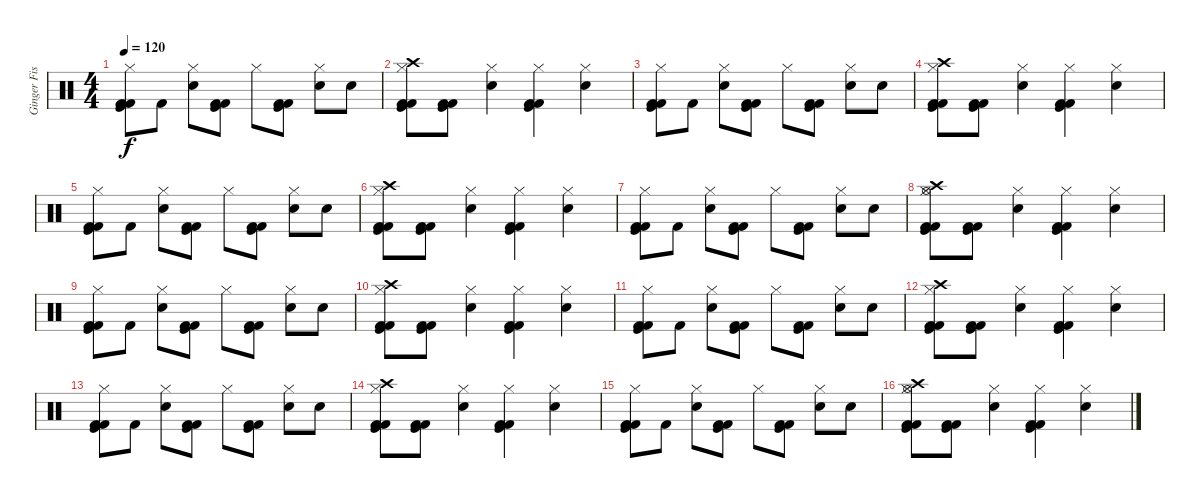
\track ("Ginger Fish" "Ginger Fis") {instrument percussion}
\staff {score}
\articulation defaults
\ts (4 4)
\tempo 120
\clef neutral
\ks c
("Hi-Hat (closed)" "Kick (hit) 2" "Kick (hit)" "Kick (hit) 2").8{dy f} "Kick (hit) 2".8 ("Hi-Hat (closed)" "Electric Snare (hit)").8 ("Kick (hit) 2" "Kick (hit)" "Kick (hit) 2").8 "Hi-Hat (closed)".8 ("Kick (hit) 2" "Kick (hit)" "Kick (hit) 2").8 ("Hi-Hat (closed)" "Electric Snare (hit)").8 "Electric Snare (hit)".8 |
("Crash high (hit)" "Hi-Hat (closed)" "Kick (hit) 2" "Kick (hit)" "Kick (hit) 2").8 ("Kick (hit) 2" "Kick (hit)" "Kick (hit) 2").8 ("Hi-Hat (closed)" "Electric Snare (hit)").4 ("Hi-Hat (closed)" "Kick (hit) 2" "Kick (hit)" "Kick (hit) 2").4 ("Hi-Hat (closed)" "Electric Snare (hit)").4 |
("Hi-Hat (closed)" "Kick (hit) 2" "Kick (hit)" "Kick (hit) 2").8 "Kick (hit) 2".8 ("Hi-Hat (closed)" "Electric Snare (hit)").8 ("Kick (hit) 2" "Kick (hit)" "Kick (hit) 2").8 "Hi-Hat (closed)".8 ("Kick (hit) 2" "Kick (hit)" "Kick (hit) 2").8 ("Hi-Hat (closed)" "Electric Snare (hit)").8 "Electric Snare (hit)".8 |
("Crash high (hit)" "Hi-Hat (closed)" "Kick (hit) 2" "Kick (hit)" "Kick (hit) 2").8 ("Kick (hit) 2" "Kick (hit)" "Kick (hit) 2").8 ("Hi-Hat (closed)" "Electric Snare (hit)").4 ("Hi-Hat (closed)" "Kick (hit) 2" "Kick (hit)" "Kick (hit) 2").4 ("Hi-Hat (closed)" "Electric Snare (hit)").4 |
("Hi-Hat (closed)" "Kick (hit) 2" "Kick (hit)" "Kick (hit) 2").8 "Kick (hit) 2".8 ("Hi-Hat (closed)" "Electric Snare (hit)").8 ("Kick (hit) 2" "Kick (hit)" "Kick (hit) 2").8 "Hi-Hat (closed)".8 ("Kick (hit) 2" "Kick (hit)" "Kick (hit) 2").8 ("Hi-Hat (closed)" "Electric Snare (hit)").8 "Electric Snare (hit)".8 |
("Crash high (hit)" "Hi-Hat (closed)" "Kick (hit) 2" "Kick (hit)" "Kick (hit) 2").8 ("Kick (hit) 2" "Kick (hit)" "Kick (hit) 2").8 ("Hi-Hat (closed)" "Electric Snare (hit)").4 ("Hi-Hat (closed)" "Kick (hit) 2" "Kick (hit)" "Kick (hit) 2").4 ("Hi-Hat (closed)" "Electric Snare (hit)").4 |
("Hi-Hat (closed)" "Kick (hit) 2" "Kick (hit)" "Kick (hit) 2").8 "Kick (hit) 2".8 ("Hi-Hat (closed)" "Electric Snare (hit)").8 ("Kick (hit) 2" "Kick (hit)" "Kick (hit) 2").8 "Hi-Hat (closed)".8 ("Kick (hit) 2" "Kick (hit)" "Kick (hit) 2").8 ("Hi-Hat (closed)" "Electric Snare (hit)").8 "Electric Snare (hit)".8 |
("Crash high (hit)" "Hi-Hat (closed)" "Hi-Hat (open)" "Kick (hit) 2" "Kick (hit)" "Kick (hit) 2").8 ("Kick (hit) 2" "Kick (hit)" "Kick (hit) 2").8 ("Hi-Hat (closed)" "Electric Snare (hit)").4 ("Hi-Hat (closed)" "Kick (hit) 2" "Kick (hit)" "Kick (hit) 2").4 ("Hi-Hat (closed)" "Electric Snare (hit)").4 |
("Hi-Hat (closed)" "Kick (hit) 2" "Kick (hit)" "Kick (hit) 2").8 "Kick (hit) 2".8 ("Hi-Hat (closed)" "Electric Snare (hit)").8 ("Kick (hit) 2" "Kick (hit)" "Kick (hit) 2").8 "Hi-Hat (closed)".8 ("Kick (hit) 2" "Kick (hit)" "Kick (hit) 2").8 ("Hi-Hat (closed)" "Electric Snare (hit)").8 "Electric Snare (hit)".8 |
("Crash high (hit)" "Hi-Hat (closed)" "Kick (hit) 2" "Kick (hit)" "Kick (hit) 2").8 ("Kick (hit) 2" "Kick (hit)" "Kick (hit) 2").8 ("Hi-Hat (closed)" "Electric Snare (hit)").4 ("Hi-Hat (closed)" "Kick (hit) 2" "Kick (hit)" "Kick (hit) 2").4 ("Hi-Hat (closed)" "Electric Snare (hit)").4 |
("Hi-Hat (closed)" "Kick (hit) 2" "Kick (hit)" "Kick (hit) 2").8 "Kick (hit) 2".8 ("Hi-Hat (closed)" "Electric Snare (hit)").8 ("Kick (hit) 2" "Kick (hit)" "Kick (hit) 2").8 "Hi-Hat (closed)".8 ("Kick (hit) 2" "Kick (hit)" "Kick (hit) 2").8 ("Hi-Hat (closed)" "Electric Snare (hit)").8 "Electric Snare (hit)".8 |
("Crash high (hit)" "Hi-Hat (closed)" "Kick (hit) 2" "Kick (hit)" "Kick (hit) 2").8 ("Kick (hit) 2" "Kick (hit)" "Kick (hit) 2").8 ("Hi-Hat (closed)" "Electric Snare (hit)").4 ("Hi-Hat (closed)" "Kick (hit) 2" "Kick (hit)" "Kick (hit) 2").4 ("Hi-Hat (closed)" "Electric Snare (hit)").4 |
("Hi-Hat (closed)" "Kick (hit) 2" "Kick (hit)" "Kick (hit) 2").8 "Kick (hit) 2".8 ("Hi-Hat (closed)" "Electric Snare (hit)").8 ("Kick (hit) 2" "Kick (hit)" "Kick (hit) 2").8 "Hi-Hat (closed)".8 ("Kick (hit) 2" "Kick (hit)" "Kick (hit) 2").8 ("Hi-Hat (closed)" "Electric Snare (hit)").8 "Electric Snare (hit)".8 |
("Crash high (hit)" "Hi-Hat (closed)" "Kick (hit) 2" "Kick (hit)" "Kick (hit) 2").8 ("Kick (hit) 2" "Kick (hit)" "Kick (hit) 2").8 ("Hi-Hat (closed)" "Electric Snare (hit)").4 ("Hi-Hat (closed)" "Kick (hit) 2" "Kick (hit)" "Kick (hit) 2").4 ("Hi-Hat (closed)" "Electric Snare (hit)").4 |
("Hi-Hat (closed)" "Kick (hit) 2" "Kick (hit)" "Kick (hit) 2").8 "Kick (hit) 2".8 ("Hi-Hat (closed)" "Electric Snare (hit)").8 ("Kick (hit) 2" "Kick (hit)" "Kick (hit) 2").8 "Hi-Hat (closed)".8 ("Kick (hit) 2" "Kick (hit)" "Kick (hit) 2").8 ("Hi-Hat (closed)" "Electric Snare (hit)").8 "Electric Snare (hit)".8 |
("Crash high (hit)" "Hi-Hat (closed)" "Hi-Hat (open)" "Kick (hit) 2" "Kick (hit)" "Kick (hit) 2").8 ("Kick (hit) 2" "Kick (hit)" "Kick (hit) 2").8 ("Hi-Hat (closed)" "Electric Snare (hit)").4 ("Hi-Hat (closed)" "Kick (hit) 2" "Kick (hit)" "Kick (hit) 2").4 ("Hi-Hat (closed)" "Electric Snare (hit)").4
